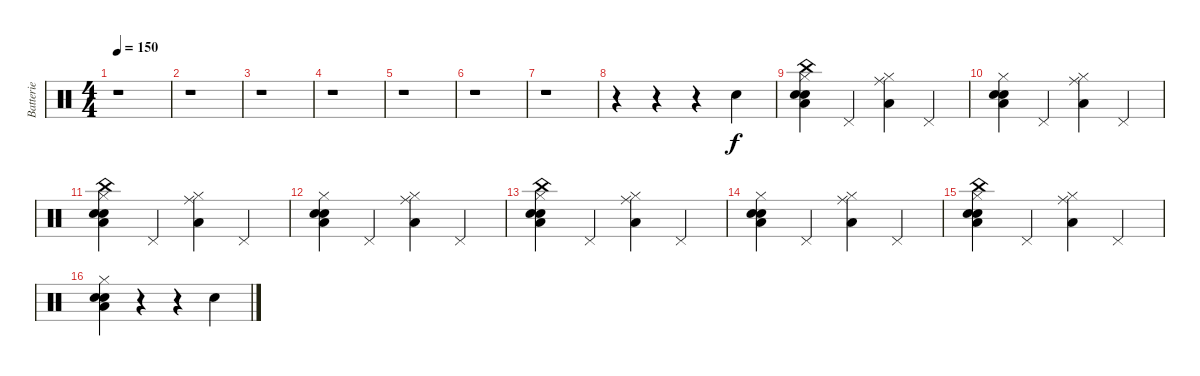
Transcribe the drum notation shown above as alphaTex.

\track ("Batterie" "Batterie") {instrument percussion}
\staff {score}
\articulation defaults
\ts (4 4)
\tempo 150
\clef neutral
\ks c
r.1{dy f} |
r.1 |
r.1 |
r.1 |
r.1 |
r.1 |
r.1 |
r.4 r.4 r.4 "Snare (hit) 2".4 |
("Electric Snare (hit)" "Low Tom (hit)" "Hi-Hat (closed)" "Snare (hit) 2" "China (hit)").4 "Pedal Hi-Hat (hit)".4 ("Low Tom (hit)" "Hi-Hat (closed)" "Ride (middle)").4 "Pedal Hi-Hat (hit)".4 |
("Electric Snare (hit)" "Low Tom (hit)" "Hi-Hat (closed)" "Snare (hit) 2").4 "Pedal Hi-Hat (hit)".4 ("Low Tom (hit)" "Hi-Hat (closed)" "Ride (middle)").4 "Pedal Hi-Hat (hit)".4 |
("Electric Snare (hit)" "Low Tom (hit)" "Hi-Hat (closed)" "Snare (hit) 2" "China (hit)").4 "Pedal Hi-Hat (hit)".4 ("Low Tom (hit)" "Hi-Hat (closed)" "Ride (middle)").4 "Pedal Hi-Hat (hit)".4 |
("Electric Snare (hit)" "Low Tom (hit)" "Hi-Hat (closed)" "Snare (hit) 2").4 "Pedal Hi-Hat (hit)".4 ("Low Tom (hit)" "Hi-Hat (closed)" "Ride (middle)").4 "Pedal Hi-Hat (hit)".4 |
("Electric Snare (hit)" "Low Tom (hit)" "Hi-Hat (closed)" "Snare (hit) 2" "China (hit)").4 "Pedal Hi-Hat (hit)".4 ("Low Tom (hit)" "Hi-Hat (closed)" "Ride (middle)").4 "Pedal Hi-Hat (hit)".4 |
("Electric Snare (hit)" "Low Tom (hit)" "Hi-Hat (closed)" "Snare (hit) 2").4 "Pedal Hi-Hat (hit)".4 ("Low Tom (hit)" "Hi-Hat (closed)" "Ride (middle)").4 "Pedal Hi-Hat (hit)".4 |
("Electric Snare (hit)" "Low Tom (hit)" "Hi-Hat (closed)" "Snare (hit) 2" "China (hit)").4 "Pedal Hi-Hat (hit)".4 ("Low Tom (hit)" "Hi-Hat (closed)" "Ride (middle)").4 "Pedal Hi-Hat (hit)".4 |
("Electric Snare (hit)" "Low Tom (hit)" "Hi-Hat (closed)" "Snare (hit) 2").4 r.4 r.4 "Snare (hit) 2".4
